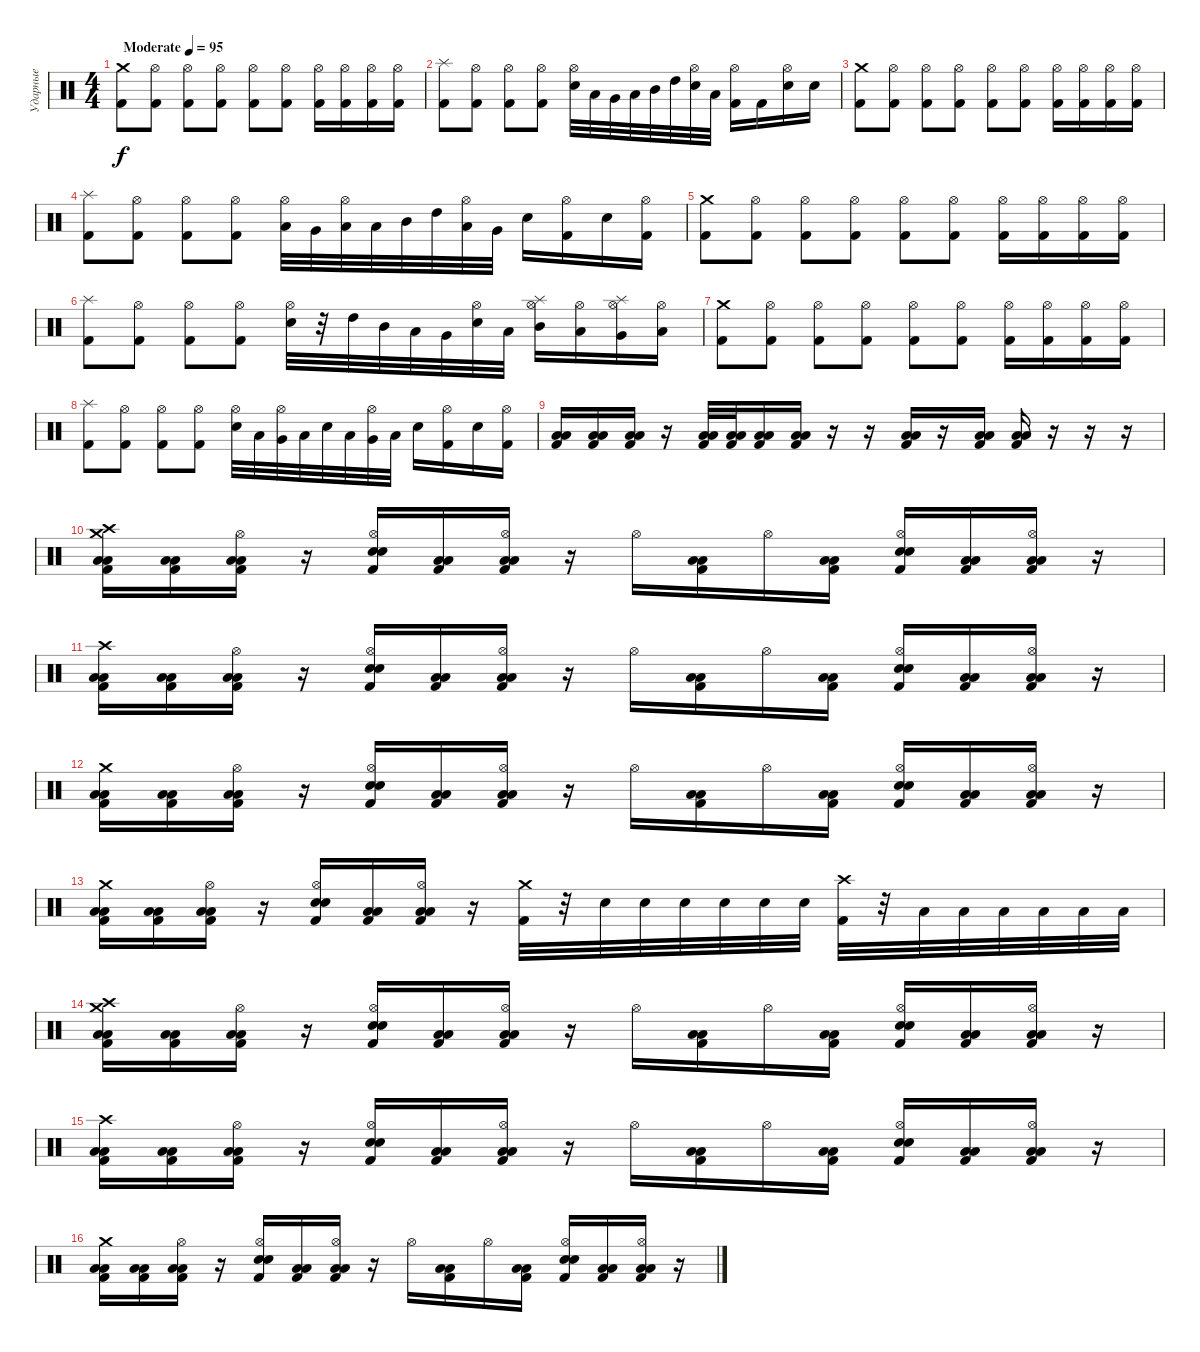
\track ("Ударные" "Ударные") {instrument percussion}
\staff
\articulation defaults
\ts (4 4)
\tempo (95 "Moderate")
\clef neutral
\ks c
("Crash medium (hit)" "Kick (hit) 2").8{dy f} ("Hi-Hat (open)" "Kick (hit) 2").8 ("Hi-Hat (open)" "Kick (hit) 2").8 ("Hi-Hat (open)" "Kick (hit) 2").8 ("Hi-Hat (open)" "Kick (hit) 2").8 ("Hi-Hat (open)" "Kick (hit) 2").8 ("Hi-Hat (open)" "Kick (hit) 2").16 ("Hi-Hat (open)" "Kick (hit) 2").16 ("Hi-Hat (open)" "Kick (hit) 2").16 ("Hi-Hat (open)" "Kick (hit) 2").16 |
("Splash (hit)" "Kick (hit) 2").8 ("Hi-Hat (open)" "Kick (hit) 2").8 ("Hi-Hat (open)" "Kick (hit) 2").8 ("Hi-Hat (open)" "Kick (hit) 2").8 ("Hi-Hat (open)" "Electric Snare (hit)").32 "Low Tom (hit)".32 "Very Low Tom (hit)".32 "Low Floor Tom (hit)".32 "Mid Tom (hit)".32 "High Tom (hit)".32 ("Hi-Hat (open)" "Electric Snare (hit)").32 "Low Tom (hit)".32 ("Hi-Hat (open)" "Kick (hit) 2").16 "Kick (hit) 2".16 ("Hi-Hat (open)" "Electric Snare (hit)").16 "Electric Snare (hit)".16 |
("Crash medium (hit)" "Kick (hit) 2").8 ("Hi-Hat (open)" "Kick (hit) 2").8 ("Hi-Hat (open)" "Kick (hit) 2").8 ("Hi-Hat (open)" "Kick (hit) 2").8 ("Hi-Hat (open)" "Kick (hit) 2").8 ("Hi-Hat (open)" "Kick (hit) 2").8 ("Hi-Hat (open)" "Kick (hit) 2").16 ("Hi-Hat (open)" "Kick (hit) 2").16 ("Hi-Hat (open)" "Kick (hit) 2").16 ("Hi-Hat (open)" "Kick (hit) 2").16 |
("Splash (hit)" "Kick (hit) 2").8 ("Hi-Hat (open)" "Kick (hit) 2").8 ("Hi-Hat (open)" "Kick (hit) 2").8 ("Hi-Hat (open)" "Kick (hit) 2").8 ("Hi-Hat (open)" "Low Tom (hit)").32 "Very Low Tom (hit)".32 ("Hi-Hat (open)" "Low Floor Tom (hit)").32 "Low Tom (hit)".32 "Mid Tom (hit)".32 "High Tom (hit)".32 ("Hi-Hat (open)" "Low Tom (hit)").32 "Very Low Tom (hit)".32 "Electric Snare (hit)".16 ("Hi-Hat (open)" "Kick (hit) 2").16 "Electric Snare (hit)".16 ("Hi-Hat (open)" "Kick (hit) 2").16 |
("Crash medium (hit)" "Kick (hit) 2").8 ("Hi-Hat (open)" "Kick (hit) 2").8 ("Hi-Hat (open)" "Kick (hit) 2").8 ("Hi-Hat (open)" "Kick (hit) 2").8 ("Hi-Hat (open)" "Kick (hit) 2").8 ("Hi-Hat (open)" "Kick (hit) 2").8 ("Hi-Hat (open)" "Kick (hit) 2").16 ("Hi-Hat (open)" "Kick (hit) 2").16 ("Hi-Hat (open)" "Kick (hit) 2").16 ("Hi-Hat (open)" "Kick (hit) 2").16 |
("Splash (hit)" "Kick (hit) 2").8 ("Hi-Hat (open)" "Kick (hit) 2").8 ("Hi-Hat (open)" "Kick (hit) 2").8 ("Hi-Hat (open)" "Kick (hit) 2").8 ("Hi-Hat (open)" "Electric Snare (hit)").32 r.32 "High Tom (hit)".32 "Mid Tom (hit)".32 "Low Tom (hit)".32 "Very Low Tom (hit)".32 ("Hi-Hat (open)" "Electric Snare (hit)").32 "Low Floor Tom (hit)".32 ("Splash (hit)" "Hi-Hat (open)" "Mid Tom (hit)").16 ("Hi-Hat (open)" "Low Tom (hit)").16 ("Splash (hit)" "Hi-Hat (open)" "Very Low Tom (hit)").16 ("Hi-Hat (open)" "Low Floor Tom (hit)").16 |
("Crash medium (hit)" "Kick (hit) 2").8 ("Hi-Hat (open)" "Kick (hit) 2").8 ("Hi-Hat (open)" "Kick (hit) 2").8 ("Hi-Hat (open)" "Kick (hit) 2").8 ("Hi-Hat (open)" "Kick (hit) 2").8 ("Hi-Hat (open)" "Kick (hit) 2").8 ("Hi-Hat (open)" "Kick (hit) 2").16 ("Hi-Hat (open)" "Kick (hit) 2").16 ("Hi-Hat (open)" "Kick (hit) 2").16 ("Hi-Hat (open)" "Kick (hit) 2").16 |
("Splash (hit)" "Kick (hit) 2").8 ("Hi-Hat (open)" "Kick (hit) 2").8 ("Hi-Hat (open)" "Kick (hit) 2").8 ("Hi-Hat (open)" "Kick (hit) 2").8 ("Hi-Hat (open)" "Electric Snare (hit)").32 "Low Tom (hit)".32 ("Hi-Hat (open)" "Very Low Tom (hit)").32 "Low Floor Tom (hit)".32 "Electric Snare (hit)".32 "Low Tom (hit)".32 ("Hi-Hat (open)" "Very Low Tom (hit)").32 "Low Floor Tom (hit)".32 "Electric Snare (hit)".16 ("Hi-Hat (open)" "Kick (hit) 2").16 "Electric Snare (hit)".16 ("Hi-Hat (open)" "Kick (hit) 2").16 |
("Low Tom (hit)" "Low Floor Tom (hit)" "Kick (hit) 2").16 ("Low Tom (hit)" "Low Floor Tom (hit)" "Kick (hit) 2").16 ("Low Tom (hit)" "Low Floor Tom (hit)" "Kick (hit) 2").16 r.16 ("Low Tom (hit)" "Low Floor Tom (hit)" "Kick (hit) 2").32 ("Low Tom (hit)" "Low Floor Tom (hit)" "Kick (hit) 2").32 ("Low Tom (hit)" "Low Floor Tom (hit)" "Kick (hit) 2").16 ("Low Tom (hit)" "Low Floor Tom (hit)" "Kick (hit) 2").16 r.16 r.16 ("Low Tom (hit)" "Low Floor Tom (hit)" "Kick (hit) 2").16 r.16 ("Low Tom (hit)" "Low Floor Tom (hit)" "Kick (hit) 2").16 ("Low Tom (hit)" "Low Floor Tom (hit)" "Kick (hit) 2").16 r.16 r.16 r.16 |
("Crash medium (hit)" "Crash high (hit)" "Low Tom (hit)" "Low Floor Tom (hit)" "Kick (hit) 2").16 ("Low Tom (hit)" "Low Floor Tom (hit)" "Kick (hit) 2").16 ("Hi-Hat (open)" "Low Tom (hit)" "Low Floor Tom (hit)" "Kick (hit) 2").16 r.16 ("Hi-Hat (open)" "Electric Snare (hit)" "Snare (hit) 2" "Kick (hit) 2").16 ("Low Tom (hit)" "Low Floor Tom (hit)" "Kick (hit) 2").16 ("Hi-Hat (open)" "Low Tom (hit)" "Low Floor Tom (hit)" "Kick (hit) 2").16 r.16 "Hi-Hat (open)".16 ("Low Tom (hit)" "Low Floor Tom (hit)" "Kick (hit) 2").16 "Hi-Hat (open)".16 ("Low Tom (hit)" "Low Floor Tom (hit)" "Kick (hit) 2").16 ("Hi-Hat (open)" "Electric Snare (hit)" "Snare (hit) 2" "Kick (hit) 2").16 ("Low Tom (hit)" "Low Floor Tom (hit)" "Kick (hit) 2").16 ("Hi-Hat (open)" "Low Tom (hit)" "Low Floor Tom (hit)" "Kick (hit) 2").16 r.16 |
("Crash high (hit)" "Low Tom (hit)" "Low Floor Tom (hit)" "Kick (hit) 2").16 ("Low Tom (hit)" "Low Floor Tom (hit)" "Kick (hit) 2").16 ("Hi-Hat (open)" "Low Tom (hit)" "Low Floor Tom (hit)" "Kick (hit) 2").16 r.16 ("Hi-Hat (open)" "Electric Snare (hit)" "Snare (hit) 2" "Kick (hit) 2").16 ("Low Tom (hit)" "Low Floor Tom (hit)" "Kick (hit) 2").16 ("Hi-Hat (open)" "Low Tom (hit)" "Low Floor Tom (hit)" "Kick (hit) 2").16 r.16 "Hi-Hat (open)".16 ("Low Tom (hit)" "Low Floor Tom (hit)" "Kick (hit) 2").16 "Hi-Hat (open)".16 ("Low Tom (hit)" "Low Floor Tom (hit)" "Kick (hit) 2").16 ("Hi-Hat (open)" "Electric Snare (hit)" "Snare (hit) 2" "Kick (hit) 2").16 ("Low Tom (hit)" "Low Floor Tom (hit)" "Kick (hit) 2").16 ("Hi-Hat (open)" "Low Tom (hit)" "Low Floor Tom (hit)" "Kick (hit) 2").16 r.16 |
("Crash medium (hit)" "Low Tom (hit)" "Low Floor Tom (hit)" "Kick (hit) 2").16 ("Low Tom (hit)" "Low Floor Tom (hit)" "Kick (hit) 2").16 ("Hi-Hat (open)" "Low Tom (hit)" "Low Floor Tom (hit)" "Kick (hit) 2").16 r.16 ("Hi-Hat (open)" "Electric Snare (hit)" "Snare (hit) 2" "Kick (hit) 2").16 ("Low Tom (hit)" "Low Floor Tom (hit)" "Kick (hit) 2").16 ("Hi-Hat (open)" "Low Tom (hit)" "Low Floor Tom (hit)" "Kick (hit) 2").16 r.16 "Hi-Hat (open)".16 ("Low Tom (hit)" "Low Floor Tom (hit)" "Kick (hit) 2").16 "Hi-Hat (open)".16 ("Low Tom (hit)" "Low Floor Tom (hit)" "Kick (hit) 2").16 ("Hi-Hat (open)" "Electric Snare (hit)" "Snare (hit) 2" "Kick (hit) 2").16 ("Low Tom (hit)" "Low Floor Tom (hit)" "Kick (hit) 2").16 ("Hi-Hat (open)" "Low Tom (hit)" "Low Floor Tom (hit)" "Kick (hit) 2").16 r.16 |
("Crash medium (hit)" "Low Tom (hit)" "Low Floor Tom (hit)" "Kick (hit) 2").16 ("Low Tom (hit)" "Low Floor Tom (hit)" "Kick (hit) 2").16 ("Hi-Hat (open)" "Low Tom (hit)" "Low Floor Tom (hit)" "Kick (hit) 2").16 r.16 ("Hi-Hat (open)" "Electric Snare (hit)" "Snare (hit) 2" "Kick (hit) 2").16 ("Low Tom (hit)" "Low Floor Tom (hit)" "Kick (hit) 2").16 ("Hi-Hat (open)" "Low Tom (hit)" "Low Floor Tom (hit)" "Kick (hit) 2").16 r.16 ("Crash medium (hit)" "Kick (hit) 2").32 r.32 "Electric Snare (hit)".32 "Electric Snare (hit)".32 "Electric Snare (hit)".32 "Electric Snare (hit)".32 "Electric Snare (hit)".32 "Electric Snare (hit)".32 ("Crash high (hit)" "Kick (hit) 2").32 r.32 "Low Tom (hit)".32 "Low Tom (hit)".32 "Low Tom (hit)".32 "Low Tom (hit)".32 "Low Tom (hit)".32 "Low Tom (hit)".32 |
("Crash medium (hit)" "Crash high (hit)" "Low Tom (hit)" "Low Floor Tom (hit)" "Kick (hit) 2").16 ("Low Tom (hit)" "Low Floor Tom (hit)" "Kick (hit) 2").16 ("Hi-Hat (open)" "Low Tom (hit)" "Low Floor Tom (hit)" "Kick (hit) 2").16 r.16 ("Hi-Hat (open)" "Electric Snare (hit)" "Snare (hit) 2" "Kick (hit) 2").16 ("Low Tom (hit)" "Low Floor Tom (hit)" "Kick (hit) 2").16 ("Hi-Hat (open)" "Low Tom (hit)" "Low Floor Tom (hit)" "Kick (hit) 2").16 r.16 "Hi-Hat (open)".16 ("Low Tom (hit)" "Low Floor Tom (hit)" "Kick (hit) 2").16 "Hi-Hat (open)".16 ("Low Tom (hit)" "Low Floor Tom (hit)" "Kick (hit) 2").16 ("Hi-Hat (open)" "Electric Snare (hit)" "Snare (hit) 2" "Kick (hit) 2").16 ("Low Tom (hit)" "Low Floor Tom (hit)" "Kick (hit) 2").16 ("Hi-Hat (open)" "Low Tom (hit)" "Low Floor Tom (hit)" "Kick (hit) 2").16 r.16 |
("Crash high (hit)" "Low Tom (hit)" "Low Floor Tom (hit)" "Kick (hit) 2").16 ("Low Tom (hit)" "Low Floor Tom (hit)" "Kick (hit) 2").16 ("Hi-Hat (open)" "Low Tom (hit)" "Low Floor Tom (hit)" "Kick (hit) 2").16 r.16 ("Hi-Hat (open)" "Electric Snare (hit)" "Snare (hit) 2" "Kick (hit) 2").16 ("Low Tom (hit)" "Low Floor Tom (hit)" "Kick (hit) 2").16 ("Hi-Hat (open)" "Low Tom (hit)" "Low Floor Tom (hit)" "Kick (hit) 2").16 r.16 "Hi-Hat (open)".16 ("Low Tom (hit)" "Low Floor Tom (hit)" "Kick (hit) 2").16 "Hi-Hat (open)".16 ("Low Tom (hit)" "Low Floor Tom (hit)" "Kick (hit) 2").16 ("Hi-Hat (open)" "Electric Snare (hit)" "Snare (hit) 2" "Kick (hit) 2").16 ("Low Tom (hit)" "Low Floor Tom (hit)" "Kick (hit) 2").16 ("Hi-Hat (open)" "Low Tom (hit)" "Low Floor Tom (hit)" "Kick (hit) 2").16 r.16 |
("Crash medium (hit)" "Low Tom (hit)" "Low Floor Tom (hit)" "Kick (hit) 2").16 ("Low Tom (hit)" "Low Floor Tom (hit)" "Kick (hit) 2").16 ("Hi-Hat (open)" "Low Tom (hit)" "Low Floor Tom (hit)" "Kick (hit) 2").16 r.16 ("Hi-Hat (open)" "Electric Snare (hit)" "Snare (hit) 2" "Kick (hit) 2").16 ("Low Tom (hit)" "Low Floor Tom (hit)" "Kick (hit) 2").16 ("Hi-Hat (open)" "Low Tom (hit)" "Low Floor Tom (hit)" "Kick (hit) 2").16 r.16 "Hi-Hat (open)".16 ("Low Tom (hit)" "Low Floor Tom (hit)" "Kick (hit) 2").16 "Hi-Hat (open)".16 ("Low Tom (hit)" "Low Floor Tom (hit)" "Kick (hit) 2").16 ("Hi-Hat (open)" "Electric Snare (hit)" "Snare (hit) 2" "Kick (hit) 2").16 ("Low Tom (hit)" "Low Floor Tom (hit)" "Kick (hit) 2").16 ("Hi-Hat (open)" "Low Tom (hit)" "Low Floor Tom (hit)" "Kick (hit) 2").16 r.16
